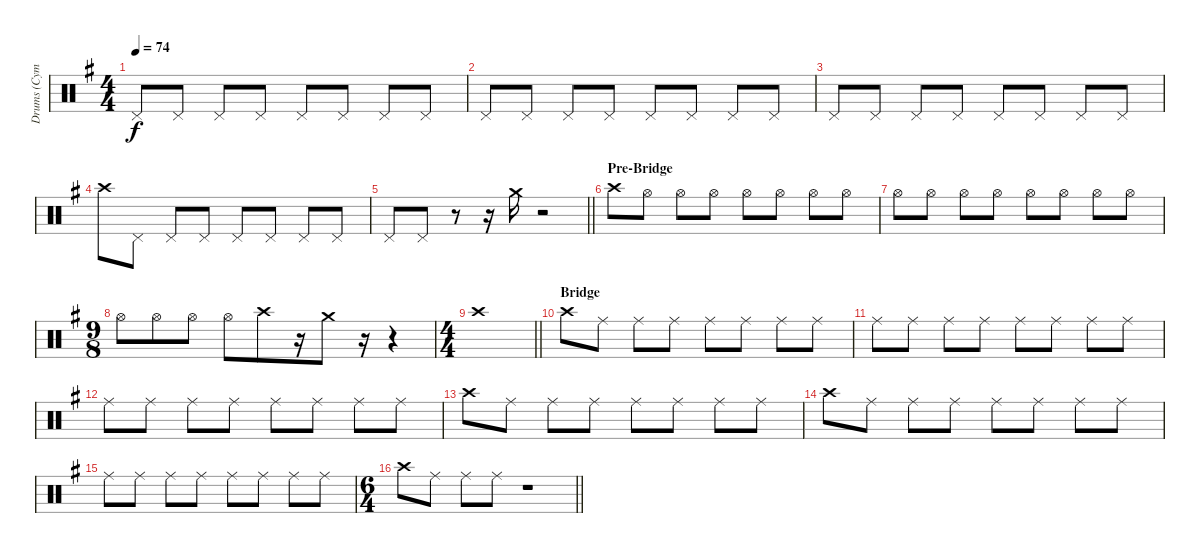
\track ("Drums (Cymbals)" "Drums (Cym") {instrument percussion}
\staff {score}
\articulation defaults
\ts (4 4)
\tempo 74
\clef neutral
\ks g "Pedal Hi-Hat (hit)".8{dy f} "Pedal Hi-Hat (hit)".8 "Pedal Hi-Hat (hit)".8 "Pedal Hi-Hat (hit)".8 "Pedal Hi-Hat (hit)".8 "Pedal Hi-Hat (hit)".8 "Pedal Hi-Hat (hit)".8 "Pedal Hi-Hat (hit)".8
|
"Pedal Hi-Hat (hit)".8 "Pedal Hi-Hat (hit)".8 "Pedal Hi-Hat (hit)".8 "Pedal Hi-Hat (hit)".8 "Pedal Hi-Hat (hit)".8 "Pedal Hi-Hat (hit)".8 "Pedal Hi-Hat (hit)".8 "Pedal Hi-Hat (hit)".8 |
"Pedal Hi-Hat (hit)".8 "Pedal Hi-Hat (hit)".8 "Pedal Hi-Hat (hit)".8 "Pedal Hi-Hat (hit)".8 "Pedal Hi-Hat (hit)".8 "Pedal Hi-Hat (hit)".8 "Pedal Hi-Hat (hit)".8 "Pedal Hi-Hat (hit)".8 |
"Crash high (hit)".8 "Pedal Hi-Hat (hit)".8 "Pedal Hi-Hat (hit)".8 "Pedal Hi-Hat (hit)".8 "Pedal Hi-Hat (hit)".8 "Pedal Hi-Hat (hit)".8 "Pedal Hi-Hat (hit)".8 "Pedal Hi-Hat (hit)".8 |
\barLineRight lightlight "Pedal Hi-Hat (hit)".8 "Pedal Hi-Hat (hit)".8
r.8 r.16 "Crash medium (hit)".16 r.2 |
\section ("" "Pre-Bridge")
"Crash high (hit)".8 "Hi-Hat (open)".8 "Hi-Hat (open)".8 "Hi-Hat (open)".8 "Hi-Hat (open)".8 "Hi-Hat (open)".8 "Hi-Hat (open)".8 "Hi-Hat (open)".8 |
"Hi-Hat (open)".8 "Hi-Hat (open)".8 "Hi-Hat (open)".8 "Hi-Hat (open)".8 "Hi-Hat (open)".8 "Hi-Hat (open)".8 "Hi-Hat (open)".8 "Hi-Hat (open)".8 |
\ts (9 8)
"Hi-Hat (open)".8 "Hi-Hat (open)".8 "Hi-Hat (open)".8 "Hi-Hat (open)".8 "Crash high (hit)".8 r.16 "Crash medium (hit)".8 r.16 r.4 |
\ts (4 4)
\barLineRight lightlight "Crash high (hit)".1
|
\section ("" "Bridge")
"Crash high (hit)".8 "Ride (middle)".8 "Ride (middle)".8 "Ride (middle)".8 "Ride (middle)".8 "Ride (middle)".8 "Ride (middle)".8 "Ride (middle)".8 |
"Ride (middle)".8 "Ride (middle)".8 "Ride (middle)".8 "Ride (middle)".8 "Ride (middle)".8 "Ride (middle)".8 "Ride (middle)".8 "Ride (middle)".8 |
"Ride (middle)".8 "Ride (middle)".8 "Ride (middle)".8 "Ride (middle)".8 "Ride (middle)".8 "Ride (middle)".8 "Ride (middle)".8 "Ride (middle)".8 |
"Crash high (hit)".8 "Ride (middle)".8 "Ride (middle)".8 "Ride (middle)".8 "Ride (middle)".8 "Ride (middle)".8 "Ride (middle)".8 "Ride (middle)".8 |
"Crash high (hit)".8 "Ride (middle)".8 "Ride (middle)".8 "Ride (middle)".8 "Ride (middle)".8 "Ride (middle)".8 "Ride (middle)".8 "Ride (middle)".8 |
"Ride (middle)".8 "Ride (middle)".8 "Ride (middle)".8 "Ride (middle)".8 "Ride (middle)".8 "Ride (middle)".8 "Ride (middle)".8 "Ride (middle)".8 |
\ts (6 4)
\barLineRight lightlight "Crash high (hit)".8 "Ride (middle)".8 "Ride (middle)".8 "Ride (middle)".8
r.1
